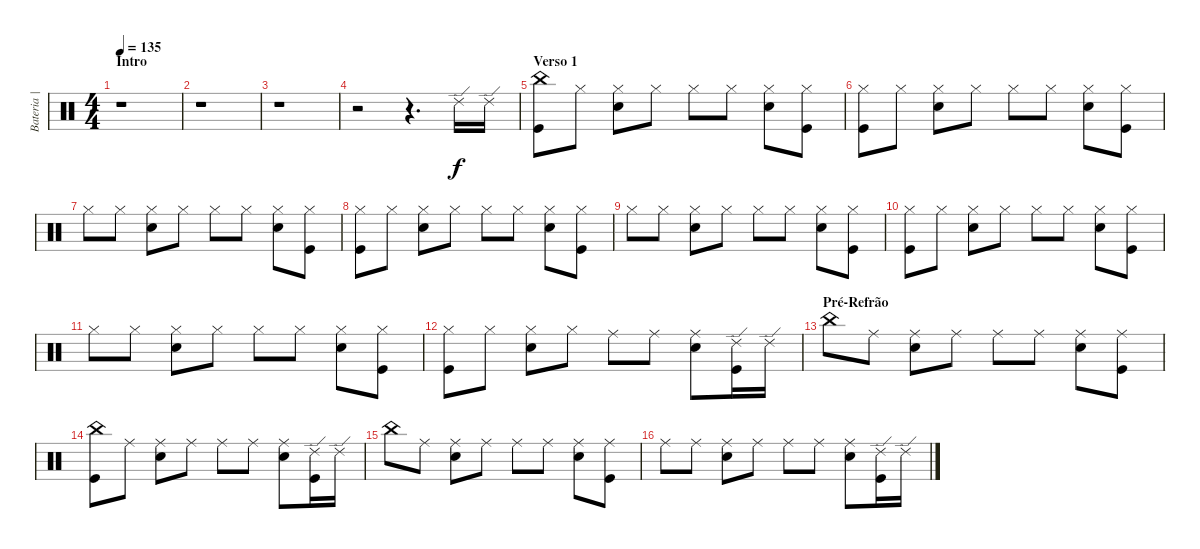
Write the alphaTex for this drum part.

\track ("Bateria | Bernardo" "Bateria | ") {instrument percussion}
\staff {score}
\articulation defaults
\ts (4 4)
\section ("" "Intro")
\tempo 135
\clef neutral
\ks c
r.1{dy f} |
r.1 |
r.1 |
r.2 r.4{d} "Ride (edge) 2".16 "Ride (edge) 2".16 |
\section ("" "Verso 1")
("China (hit)" "Kick (hit)").8 "Hi-Hat (closed)".8 ("Hi-Hat (closed)" "Snare (hit) 2").8 "Hi-Hat (closed)".8 "Hi-Hat (closed)".8 "Hi-Hat (closed)".8 ("Hi-Hat (closed)" "Snare (hit) 2").8 ("Hi-Hat (closed)" "Kick (hit)").8 |
("Hi-Hat (closed)" "Kick (hit)").8 "Hi-Hat (closed)".8 ("Hi-Hat (closed)" "Snare (hit) 2").8 "Hi-Hat (closed)".8 "Hi-Hat (closed)".8 "Hi-Hat (closed)".8 ("Hi-Hat (closed)" "Snare (hit) 2").8 ("Hi-Hat (closed)" "Kick (hit)").8 |
"Hi-Hat (closed)".8 "Hi-Hat (closed)".8 ("Hi-Hat (closed)" "Snare (hit) 2").8 "Hi-Hat (closed)".8 "Hi-Hat (closed)".8 "Hi-Hat (closed)".8 ("Hi-Hat (closed)" "Snare (hit) 2").8 ("Hi-Hat (closed)" "Kick (hit)").8 |
("Hi-Hat (closed)" "Kick (hit)").8 "Hi-Hat (closed)".8 ("Hi-Hat (closed)" "Snare (hit) 2").8 "Hi-Hat (closed)".8 "Hi-Hat (closed)".8 "Hi-Hat (closed)".8 ("Hi-Hat (closed)" "Snare (hit) 2").8 ("Hi-Hat (closed)" "Kick (hit)").8 |
"Hi-Hat (closed)".8 "Hi-Hat (closed)".8 ("Hi-Hat (closed)" "Snare (hit) 2").8 "Hi-Hat (closed)".8 "Hi-Hat (closed)".8 "Hi-Hat (closed)".8 ("Hi-Hat (closed)" "Snare (hit) 2").8 ("Hi-Hat (closed)" "Kick (hit)").8 |
("Hi-Hat (closed)" "Kick (hit)").8 "Hi-Hat (closed)".8 ("Hi-Hat (closed)" "Snare (hit) 2").8 "Hi-Hat (closed)".8 "Hi-Hat (closed)".8 "Hi-Hat (closed)".8 ("Hi-Hat (closed)" "Snare (hit) 2").8 ("Hi-Hat (closed)" "Kick (hit)").8 |
"Hi-Hat (closed)".8 "Hi-Hat (closed)".8 ("Hi-Hat (closed)" "Snare (hit) 2").8 "Hi-Hat (closed)".8 "Hi-Hat (closed)".8 "Hi-Hat (closed)".8 ("Hi-Hat (closed)" "Snare (hit) 2").8 ("Hi-Hat (closed)" "Kick (hit)").8 |
("Hi-Hat (closed)" "Kick (hit)").8 "Hi-Hat (closed)".8 ("Hi-Hat (closed)" "Snare (hit) 2").8 "Hi-Hat (closed)".8 "Ride (middle)".8 "Ride (middle)".8 ("Ride (middle)" "Snare (hit) 2").8 ("Ride (edge) 2" "Kick (hit)").16 "Ride (edge) 2".16 |
\section ("" "Pré-Refrão")
"China (hit)".8 "Ride (middle)".8 ("Ride (middle)" "Snare (hit) 2").8 "Ride (middle)".8 "Ride (middle)".8 "Ride (middle)".8 ("Ride (middle)" "Snare (hit) 2").8 ("Ride (middle)" "Kick (hit)").8 |
("China (hit)" "Kick (hit)").8 "Ride (middle)".8 ("Ride (middle)" "Snare (hit) 2").8 "Ride (middle)".8 "Ride (middle)".8 "Ride (middle)".8 ("Ride (middle)" "Snare (hit) 2").8 ("Ride (edge) 2" "Kick (hit)").16 "Ride (edge) 2".16 |
"China (hit)".8 "Ride (middle)".8 ("Ride (middle)" "Snare (hit) 2").8 "Ride (middle)".8 "Ride (middle)".8 "Ride (middle)".8 ("Ride (middle)" "Snare (hit) 2").8 ("Ride (middle)" "Kick (hit)").8 |
"Ride (middle)".8 "Ride (middle)".8 ("Ride (middle)" "Snare (hit) 2").8 "Ride (middle)".8 "Ride (middle)".8 "Ride (middle)".8 ("Ride (middle)" "Snare (hit) 2").8 ("Ride (edge) 2" "Kick (hit)").16 "Ride (edge) 2".16
